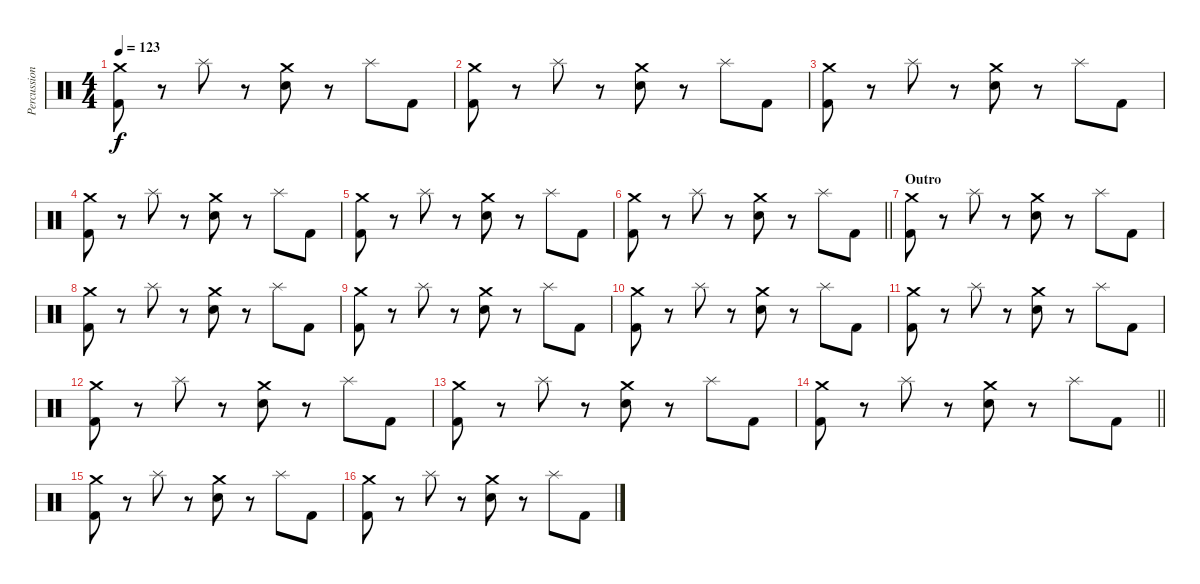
\track ("Percussion" "Percussion") {instrument percussion}
\staff {score}
\articulation defaults
\ts (4 4)
\tempo 123
\clef neutral
\ks c
("Crash medium (hit)" "Kick (hit) 2").8{dy f} r.8 "Splash (hit)".8 r.8 ("Crash medium (hit)" "Snare (hit) 2").8 r.8 "Splash (hit)".8 "Kick (hit) 2".8 |
("Crash medium (hit)" "Kick (hit) 2").8 r.8 "Splash (hit)".8 r.8 ("Crash medium (hit)" "Snare (hit) 2").8 r.8 "Splash (hit)".8 "Kick (hit) 2".8 |
("Crash medium (hit)" "Kick (hit) 2").8 r.8 "Splash (hit)".8 r.8 ("Crash medium (hit)" "Snare (hit) 2").8 r.8 "Splash (hit)".8 "Kick (hit) 2".8 |
("Crash medium (hit)" "Kick (hit) 2").8 r.8 "Splash (hit)".8 r.8 ("Crash medium (hit)" "Snare (hit) 2").8 r.8 "Splash (hit)".8 "Kick (hit) 2".8 |
("Crash medium (hit)" "Kick (hit) 2").8 r.8 "Splash (hit)".8 r.8 ("Crash medium (hit)" "Snare (hit) 2").8 r.8 "Splash (hit)".8 "Kick (hit) 2".8 |
\barLineRight lightlight
("Crash medium (hit)" "Kick (hit) 2").8 r.8 "Splash (hit)".8 r.8 ("Crash medium (hit)" "Snare (hit) 2").8 r.8 "Splash (hit)".8 "Kick (hit) 2".8 |
\section ("" "Outro")
("Crash medium (hit)" "Kick (hit) 2").8 r.8 "Splash (hit)".8 r.8 ("Crash medium (hit)" "Snare (hit) 2").8 r.8 "Splash (hit)".8 "Kick (hit) 2".8 |
("Crash medium (hit)" "Kick (hit) 2").8 r.8 "Splash (hit)".8 r.8 ("Crash medium (hit)" "Snare (hit) 2").8 r.8 "Splash (hit)".8 "Kick (hit) 2".8 |
("Crash medium (hit)" "Kick (hit) 2").8 r.8 "Splash (hit)".8 r.8 ("Crash medium (hit)" "Snare (hit) 2").8 r.8 "Splash (hit)".8 "Kick (hit) 2".8 |
("Crash medium (hit)" "Kick (hit) 2").8 r.8 "Splash (hit)".8 r.8 ("Crash medium (hit)" "Snare (hit) 2").8 r.8 "Splash (hit)".8 "Kick (hit) 2".8 |
("Crash medium (hit)" "Kick (hit) 2").8 r.8 "Splash (hit)".8 r.8 ("Crash medium (hit)" "Snare (hit) 2").8 r.8 "Splash (hit)".8 "Kick (hit) 2".8 |
("Crash medium (hit)" "Kick (hit) 2").8 r.8 "Splash (hit)".8 r.8 ("Crash medium (hit)" "Snare (hit) 2").8 r.8 "Splash (hit)".8 "Kick (hit) 2".8 |
("Crash medium (hit)" "Kick (hit) 2").8 r.8 "Splash (hit)".8 r.8 ("Crash medium (hit)" "Snare (hit) 2").8 r.8 "Splash (hit)".8 "Kick (hit) 2".8 |
\barLineRight lightlight
("Crash medium (hit)" "Kick (hit) 2").8 r.8 "Splash (hit)".8 r.8 ("Crash medium (hit)" "Snare (hit) 2").8 r.8 "Splash (hit)".8 "Kick (hit) 2".8 |
("Crash medium (hit)" "Kick (hit) 2").8 r.8 "Splash (hit)".8 r.8 ("Crash medium (hit)" "Snare (hit) 2").8 r.8 "Splash (hit)".8 "Kick (hit) 2".8 |
("Crash medium (hit)" "Kick (hit) 2").8 r.8 "Splash (hit)".8 r.8 ("Crash medium (hit)" "Snare (hit) 2").8 r.8 "Splash (hit)".8 "Kick (hit) 2".8
